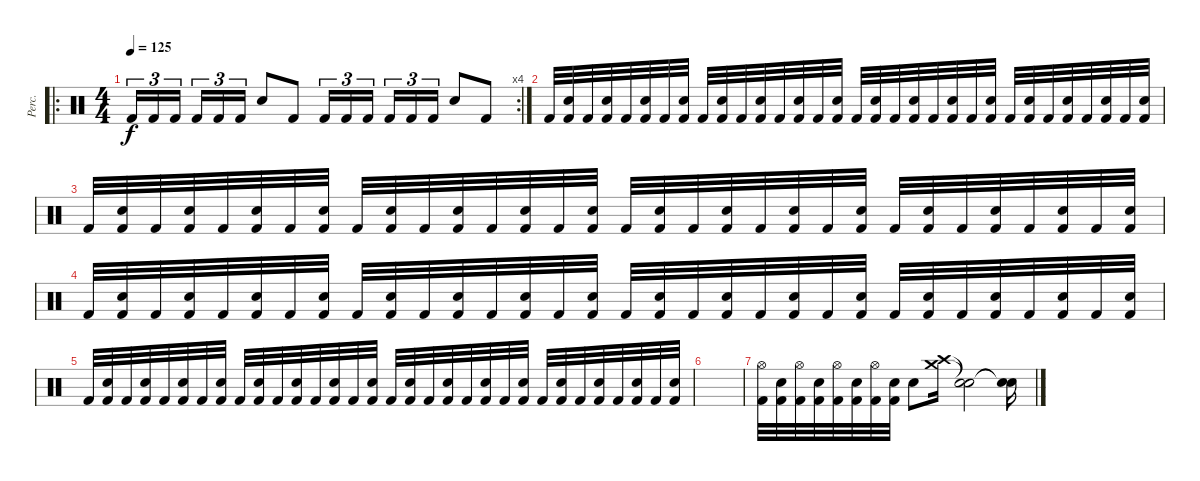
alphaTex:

\track ("Perc." "Perc.") {instrument percussion}
\staff {score}
\articulation defaults
\ro
\rc 4
\ts (4 4)
\tempo 125
\clef neutral
\ks c "Kick (hit) 2".16{tu (3 2) dy f} "Kick (hit) 2".16{tu (3 2)} "Kick (hit) 2".16{tu (3 2)} "Kick (hit) 2".16{tu (3 2)} "Kick (hit) 2".16{tu (3 2)} "Kick (hit) 2".16{tu (3 2)} "Snare (hit) 2".8 "Kick (hit) 2".8 "Kick (hit) 2".16{tu (3 2)} "Kick (hit) 2".16{tu (3 2)} "Kick (hit) 2".16{tu (3 2)} "Kick (hit) 2".16{tu (3 2)} "Kick (hit) 2".16{tu (3 2)} "Kick (hit) 2".16{tu (3 2)} "Snare (hit) 2".8 "Kick (hit) 2".8
|
"Kick (hit) 2".32 ("Snare (hit) 2" "Kick (hit) 2").32 "Kick (hit) 2".32 ("Snare (hit) 2" "Kick (hit) 2").32 "Kick (hit) 2".32 ("Snare (hit) 2" "Kick (hit) 2").32 "Kick (hit) 2".32 ("Snare (hit) 2" "Kick (hit) 2").32 "Kick (hit) 2".32 ("Snare (hit) 2" "Kick (hit) 2").32 "Kick (hit) 2".32 ("Snare (hit) 2" "Kick (hit) 2").32 "Kick (hit) 2".32 ("Snare (hit) 2" "Kick (hit) 2").32 "Kick (hit) 2".32 ("Snare (hit) 2" "Kick (hit) 2").32 "Kick (hit) 2".32 ("Snare (hit) 2" "Kick (hit) 2").32 "Kick (hit) 2".32 ("Snare (hit) 2" "Kick (hit) 2").32 "Kick (hit) 2".32 ("Snare (hit) 2" "Kick (hit) 2").32 "Kick (hit) 2".32 ("Snare (hit) 2" "Kick (hit) 2").32 "Kick (hit) 2".32 ("Snare (hit) 2" "Kick (hit) 2").32 "Kick (hit) 2".32 ("Snare (hit) 2" "Kick (hit) 2").32 "Kick (hit) 2".32 ("Snare (hit) 2" "Kick (hit) 2").32 "Kick (hit) 2".32 ("Snare (hit) 2" "Kick (hit) 2").32 |
"Kick (hit) 2".32 ("Snare (hit) 2" "Kick (hit) 2").32 "Kick (hit) 2".32 ("Snare (hit) 2" "Kick (hit) 2").32 "Kick (hit) 2".32 ("Snare (hit) 2" "Kick (hit) 2").32 "Kick (hit) 2".32 ("Snare (hit) 2" "Kick (hit) 2").32 "Kick (hit) 2".32 ("Snare (hit) 2" "Kick (hit) 2").32 "Kick (hit) 2".32 ("Snare (hit) 2" "Kick (hit) 2").32 "Kick (hit) 2".32 ("Snare (hit) 2" "Kick (hit) 2").32 "Kick (hit) 2".32 ("Snare (hit) 2" "Kick (hit) 2").32 "Kick (hit) 2".32 ("Snare (hit) 2" "Kick (hit) 2").32 "Kick (hit) 2".32 ("Snare (hit) 2" "Kick (hit) 2").32 "Kick (hit) 2".32 ("Snare (hit) 2" "Kick (hit) 2").32 "Kick (hit) 2".32 ("Snare (hit) 2" "Kick (hit) 2").32 "Kick (hit) 2".32 ("Snare (hit) 2" "Kick (hit) 2").32 "Kick (hit) 2".32 ("Snare (hit) 2" "Kick (hit) 2").32 "Kick (hit) 2".32 ("Snare (hit) 2" "Kick (hit) 2").32 "Kick (hit) 2".32 ("Snare (hit) 2" "Kick (hit) 2").32 |
"Kick (hit) 2".32 ("Snare (hit) 2" "Kick (hit) 2").32 "Kick (hit) 2".32 ("Snare (hit) 2" "Kick (hit) 2").32 "Kick (hit) 2".32 ("Snare (hit) 2" "Kick (hit) 2").32 "Kick (hit) 2".32 ("Snare (hit) 2" "Kick (hit) 2").32 "Kick (hit) 2".32 ("Snare (hit) 2" "Kick (hit) 2").32 "Kick (hit) 2".32 ("Snare (hit) 2" "Kick (hit) 2").32 "Kick (hit) 2".32 ("Snare (hit) 2" "Kick (hit) 2").32 "Kick (hit) 2".32 ("Snare (hit) 2" "Kick (hit) 2").32 "Kick (hit) 2".32 ("Snare (hit) 2" "Kick (hit) 2").32 "Kick (hit) 2".32 ("Snare (hit) 2" "Kick (hit) 2").32 "Kick (hit) 2".32 ("Snare (hit) 2" "Kick (hit) 2").32 "Kick (hit) 2".32 ("Snare (hit) 2" "Kick (hit) 2").32 "Kick (hit) 2".32 ("Snare (hit) 2" "Kick (hit) 2").32 "Kick (hit) 2".32 ("Snare (hit) 2" "Kick (hit) 2").32 "Kick (hit) 2".32 ("Snare (hit) 2" "Kick (hit) 2").32 "Kick (hit) 2".32 ("Snare (hit) 2" "Kick (hit) 2").32 |
"Kick (hit) 2".32 ("Snare (hit) 2" "Kick (hit) 2").32 "Kick (hit) 2".32 ("Snare (hit) 2" "Kick (hit) 2").32 "Kick (hit) 2".32 ("Snare (hit) 2" "Kick (hit) 2").32 "Kick (hit) 2".32 ("Snare (hit) 2" "Kick (hit) 2").32 "Kick (hit) 2".32 ("Snare (hit) 2" "Kick (hit) 2").32 "Kick (hit) 2".32 ("Snare (hit) 2" "Kick (hit) 2").32 "Kick (hit) 2".32 ("Snare (hit) 2" "Kick (hit) 2").32 "Kick (hit) 2".32 ("Snare (hit) 2" "Kick (hit) 2").32 "Kick (hit) 2".32 ("Snare (hit) 2" "Kick (hit) 2").32 "Kick (hit) 2".32 ("Snare (hit) 2" "Kick (hit) 2").32 "Kick (hit) 2".32 ("Snare (hit) 2" "Kick (hit) 2").32 "Kick (hit) 2".32 ("Snare (hit) 2" "Kick (hit) 2").32 "Kick (hit) 2".32 ("Snare (hit) 2" "Kick (hit) 2").32 "Kick (hit) 2".32 ("Snare (hit) 2" "Kick (hit) 2").32 "Kick (hit) 2".32 ("Snare (hit) 2" "Kick (hit) 2").32 "Kick (hit) 2".32 ("Snare (hit) 2" "Kick (hit) 2").32 |
|
("Hi-Hat (open)" "Kick (hit) 2").32 ("Snare (hit) 2" "Kick (hit) 2").32 ("Hi-Hat (open)" "Kick (hit) 2").32 ("Snare (hit) 2" "Kick (hit) 2").32 ("Hi-Hat (open)" "Kick (hit) 2").32 ("Snare (hit) 2" "Kick (hit) 2").32 ("Hi-Hat (open)" "Kick (hit) 2").32 ("Snare (hit) 2" "Kick (hit) 2").32 "Snare (hit) 2".8 ("Crash high (hit)" "Crash medium (hit)").16 ("Snare (hit)"{t} "Snare (hit)"{t}).2 ("Snare (hit)"{t} "Snare (hit)"{t}).16
